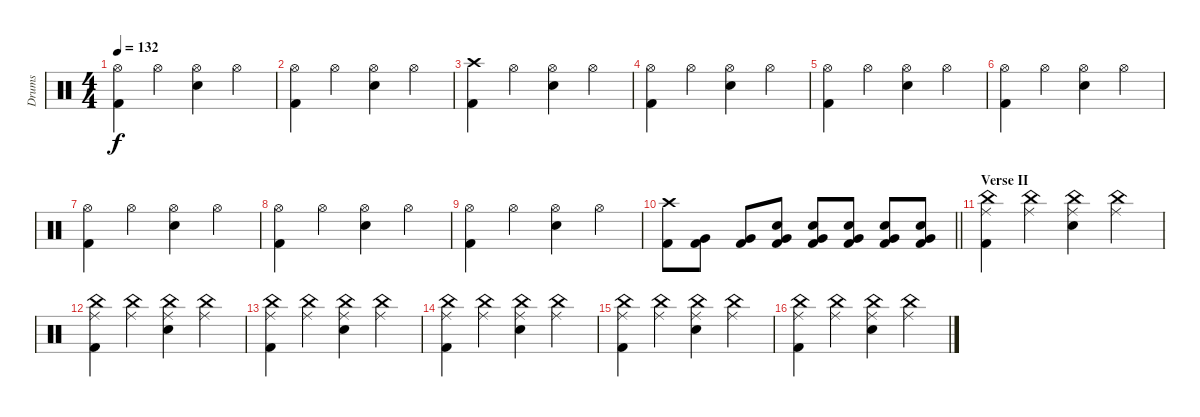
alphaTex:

\track ("Drums" "Drums") {instrument percussion}
\staff {score}
\articulation defaults
\ts (4 4)
\tempo 132
\clef neutral
\ks c
("Hi-Hat (open)" "Kick (hit) 2").4{dy f} "Hi-Hat (open)".4 ("Hi-Hat (open)" "Snare (hit) 2").4 "Hi-Hat (open)".4 |
("Hi-Hat (open)" "Kick (hit) 2").4 "Hi-Hat (open)".4 ("Hi-Hat (open)" "Snare (hit) 2").4 "Hi-Hat (open)".4 |
("Crash high (hit)" "Kick (hit) 2").4 "Hi-Hat (open)".4 ("Hi-Hat (open)" "Snare (hit) 2").4 "Hi-Hat (open)".4 |
("Hi-Hat (open)" "Kick (hit) 2").4 "Hi-Hat (open)".4 ("Hi-Hat (open)" "Snare (hit) 2").4 "Hi-Hat (open)".4 |
("Hi-Hat (open)" "Kick (hit) 2").4 "Hi-Hat (open)".4 ("Hi-Hat (open)" "Snare (hit) 2").4 "Hi-Hat (open)".4 |
("Hi-Hat (open)" "Kick (hit) 2").4 "Hi-Hat (open)".4 ("Hi-Hat (open)" "Snare (hit) 2").4 "Hi-Hat (open)".4 |
("Hi-Hat (open)" "Kick (hit) 2").4 "Hi-Hat (open)".4 ("Hi-Hat (open)" "Snare (hit) 2").4 "Hi-Hat (open)".4 |
("Hi-Hat (open)" "Kick (hit) 2").4 "Hi-Hat (open)".4 ("Hi-Hat (open)" "Snare (hit) 2").4 "Hi-Hat (open)".4 |
("Hi-Hat (open)" "Kick (hit) 2").4 "Hi-Hat (open)".4 ("Hi-Hat (open)" "Snare (hit) 2").4 "Hi-Hat (open)".4 |
\barLineRight lightlight
("Crash high (hit)" "Kick (hit) 2").8 ("Very Low Tom (hit)" "Kick (hit) 2").8{volume 0} ("Very Low Tom (hit)" "Kick (hit) 2").8{volume 16} ("Snare (hit) 2" "Very Low Tom (hit)" "Kick (hit) 2").8 ("Snare (hit) 2" "Very Low Tom (hit)" "Kick (hit) 2").8 ("Snare (hit) 2" "Very Low Tom (hit)" "Kick (hit) 2").8 ("Snare (hit) 2" "Very Low Tom (hit)" "Kick (hit) 2").8 ("Snare (hit) 2" "Very Low Tom (hit)" "Kick (hit) 2").8 |
\section ("" "Verse II")
("China (hit)" "Ride (middle)" "Kick (hit) 2").4 ("China (hit)" "Ride (middle)").4 ("China (hit)" "Ride (middle)" "Snare (hit) 2").4 ("China (hit)" "Ride (middle)").4 |
("China (hit)" "Ride (middle)" "Kick (hit) 2").4 ("China (hit)" "Ride (middle)").4 ("China (hit)" "Ride (middle)" "Snare (hit) 2").4 ("China (hit)" "Ride (middle)").4 |
("China (hit)" "Ride (middle)" "Kick (hit) 2").4 ("China (hit)" "Ride (middle)").4 ("China (hit)" "Ride (middle)" "Snare (hit) 2").4 ("China (hit)" "Ride (middle)").4 |
("China (hit)" "Ride (middle)" "Kick (hit) 2").4 ("China (hit)" "Ride (middle)").4 ("China (hit)" "Ride (middle)" "Snare (hit) 2").4 ("China (hit)" "Ride (middle)").4 |
("China (hit)" "Ride (middle)" "Kick (hit) 2").4 ("China (hit)" "Ride (middle)").4 ("China (hit)" "Ride (middle)" "Snare (hit) 2").4 ("China (hit)" "Ride (middle)").4 |
("China (hit)" "Ride (middle)" "Kick (hit) 2").4 ("China (hit)" "Ride (middle)").4 ("China (hit)" "Ride (middle)" "Snare (hit) 2").4 ("China (hit)" "Ride (middle)").4
